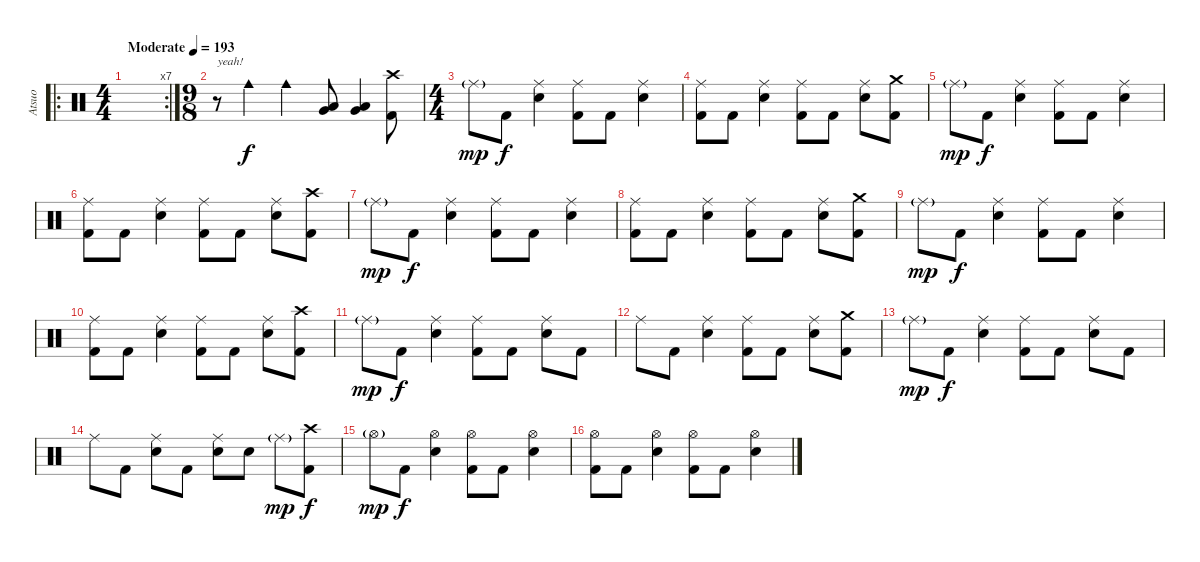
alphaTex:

\track ("Atsuo" "Atsuo") {instrument percussion}
\staff {score}
\articulation defaults
\ro
\rc 7
\ts (4 4)
\tempo (193 "Moderate")
\clef neutral
\ks c
|
\ts (9 8)
r.8{txt "yeah!"} "Cowbell medium (hit)".4 "Cowbell medium (hit)".4 ("Very Low Tom (hit)" "Low Floor Tom (hit)").8 ("Very Low Tom (hit)" "Low Floor Tom (hit)").4 ("Crash high (hit)" "Kick (hit) 2").8 |
\ts (4 4)
"Ride (middle)"{g}.8{dy mp} "Kick (hit) 2".8{dy f} ("Ride (middle)" "Electric Snare (hit)").4 ("Ride (middle)" "Kick (hit) 2").8 "Kick (hit) 2".8 ("Ride (middle)" "Electric Snare (hit)").4 |
("Ride (middle)" "Kick (hit) 2").8 "Kick (hit) 2".8 ("Ride (middle)" "Electric Snare (hit)").4 ("Ride (middle)" "Kick (hit) 2").8 "Kick (hit) 2".8 ("Ride (middle)" "Electric Snare (hit)").8 ("Crash medium (hit)" "Kick (hit) 2").8 |
"Ride (middle)"{g}.8{dy mp} "Kick (hit) 2".8{dy f} ("Ride (middle)" "Electric Snare (hit)").4 ("Ride (middle)" "Kick (hit) 2").8 "Kick (hit) 2".8 ("Ride (middle)" "Electric Snare (hit)").4 |
("Ride (middle)" "Kick (hit) 2").8 "Kick (hit) 2".8 ("Ride (middle)" "Electric Snare (hit)").4 ("Ride (middle)" "Kick (hit) 2").8 "Kick (hit) 2".8 ("Ride (middle)" "Electric Snare (hit)").8 ("Crash high (hit)" "Kick (hit) 2").8 |
"Ride (middle)"{g}.8{dy mp} "Kick (hit) 2".8{dy f} ("Ride (middle)" "Electric Snare (hit)").4 ("Ride (middle)" "Kick (hit) 2").8 "Kick (hit) 2".8 ("Ride (middle)" "Electric Snare (hit)").4 |
("Ride (middle)" "Kick (hit) 2").8 "Kick (hit) 2".8 ("Ride (middle)" "Electric Snare (hit)").4 ("Ride (middle)" "Kick (hit) 2").8 "Kick (hit) 2".8 ("Ride (middle)" "Electric Snare (hit)").8 ("Crash medium (hit)" "Kick (hit) 2").8 |
"Ride (middle)"{g}.8{dy mp} "Kick (hit) 2".8{dy f} ("Ride (middle)" "Electric Snare (hit)").4 ("Ride (middle)" "Kick (hit) 2").8 "Kick (hit) 2".8 ("Ride (middle)" "Electric Snare (hit)").4 |
("Ride (middle)" "Kick (hit) 2").8 "Kick (hit) 2".8 ("Ride (middle)" "Electric Snare (hit)").4 ("Ride (middle)" "Kick (hit) 2").8 "Kick (hit) 2".8 ("Ride (middle)" "Electric Snare (hit)").8 ("Crash high (hit)" "Kick (hit) 2").8 |
"Ride (middle)"{g}.8{dy mp} "Kick (hit) 2".8{dy f} ("Ride (middle)" "Electric Snare (hit)").4 ("Ride (middle)" "Kick (hit) 2").8 "Kick (hit) 2".8 ("Ride (middle)" "Electric Snare (hit)").8 "Kick (hit) 2".8 |
"Ride (middle)".8 "Kick (hit) 2".8 ("Ride (middle)" "Electric Snare (hit)").4 ("Ride (middle)" "Kick (hit) 2").8 "Kick (hit) 2".8 ("Ride (middle)" "Electric Snare (hit)").8 ("Crash medium (hit)" "Kick (hit) 2").8 |
"Ride (middle)"{g}.8{dy mp} "Kick (hit) 2".8{dy f} ("Ride (middle)" "Electric Snare (hit)").4 ("Ride (middle)" "Kick (hit) 2").8 "Kick (hit) 2".8 ("Ride (middle)" "Electric Snare (hit)").8 "Kick (hit) 2".8 |
"Ride (middle)".8 "Kick (hit) 2".8 ("Ride (middle)" "Electric Snare (hit)").8 "Kick (hit) 2".8 ("Ride (middle)" "Electric Snare (hit)").8 "Electric Snare (hit)".8 "Ride (middle)"{g}.8{dy mp} ("Crash high (hit)" "Kick (hit) 2").8{dy f} |
"Hi-Hat (open)"{g}.8{dy mp} "Kick (hit) 2".8{dy f} ("Hi-Hat (open)" "Electric Snare (hit)").4 ("Hi-Hat (open)" "Kick (hit) 2").8 "Kick (hit) 2".8 ("Hi-Hat (open)" "Electric Snare (hit)").4 |
("Hi-Hat (open)" "Kick (hit) 2").8 "Kick (hit) 2".8 ("Hi-Hat (open)" "Electric Snare (hit)").4 ("Hi-Hat (open)" "Kick (hit) 2").8 "Kick (hit) 2".8 ("Hi-Hat (open)" "Electric Snare (hit)").4
